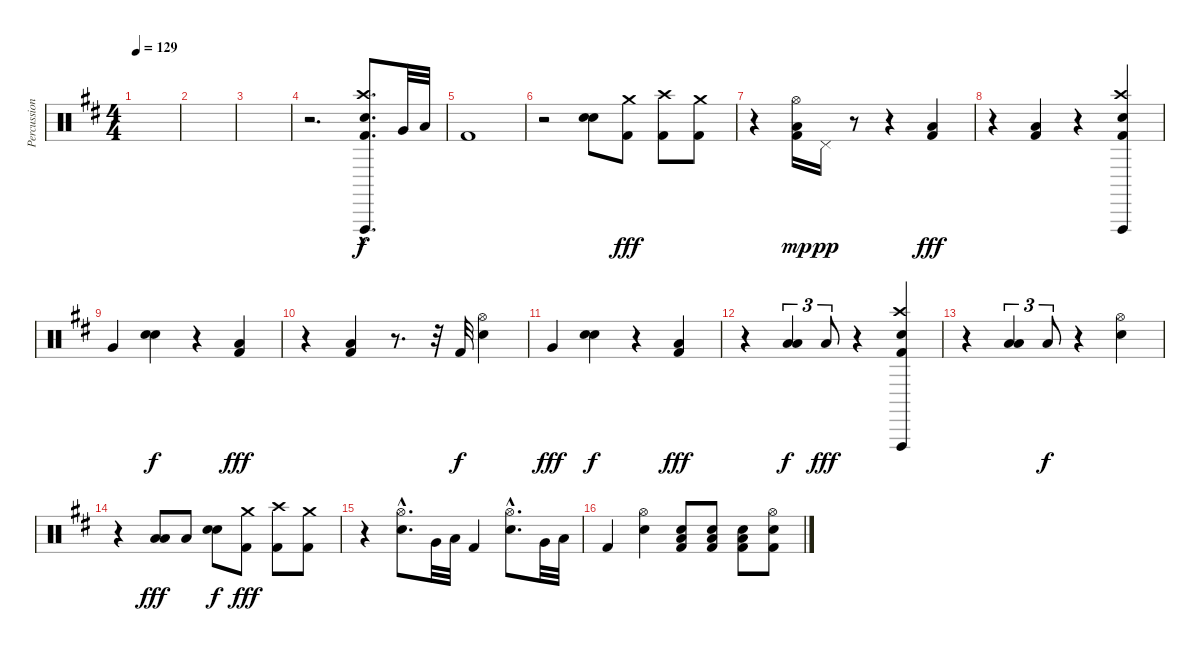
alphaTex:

\track ("Percussion" "Percussion") {instrument percussion}
\staff {score}
\articulation defaults
\ts (4 4)
\tempo 129
\clef neutral
\ks d
|
|
|
r.2{d} ("Crash high (hit)"{hac} "Kick (hit) 2"{hac} "Electric Snare (hit)"{hac} "Vibraslap (hit)"{hac}).8{d} "Very Low Tom (hit)".32 "Low Floor Tom (hit)".32 |
"Kick (hit) 2".1 |
r.2 ("Electric Snare (hit)" "Electric Snare (hit)").8{bd 240 dy f} ("Crash medium (hit)" "Kick (hit) 2").8{dy fff} ("Crash high (hit)" "Kick (hit) 2").8 ("Crash medium (hit)" "Kick (hit) 2").8 |
r.4 ("Hi-Hat (open)" "Kick (hit) 2" "Low Floor Tom (hit)").16{dy mp} "Pedal Hi-Hat (hit)".16{dy pp} r.8 r.4 ("Kick (hit) 2" "Low Floor Tom (hit)").4{dy fff} |
r.4 ("Kick (hit) 2" "Low Floor Tom (hit)").4 r.4 ("Crash high (hit)" "Kick (hit) 2" "Electric Snare (hit)" "Vibraslap (hit)").4 |
"Very Low Tom (hit)".4 ("Electric Snare (hit)" "Electric Snare (hit)").4{bd 240 dy f} r.4 ("Kick (hit) 2" "Low Floor Tom (hit)").4{dy fff} |
r.4 ("Kick (hit) 2" "Low Floor Tom (hit)").4 r.8{d} r.32 "Kick (hit) 2".32{dy f} ("Hi-Hat (open)" "Electric Snare (hit)").4 |
"Very Low Tom (hit)".4{dy fff} ("Electric Snare (hit)" "Electric Snare (hit)").4{bd 240 dy f} r.4 ("Kick (hit) 2" "Low Floor Tom (hit)").4{dy fff} |
r.4 ("Low Floor Tom (hit)" "Low Floor Tom (hit)").4{tu (3 2) bd 480 dy f} "Low Floor Tom (hit)".8{tu (3 2) dy fff} r.4 ("Crash high (hit)" "Kick (hit) 2" "Electric Snare (hit)" "Vibraslap (hit)").4 |
r.4 ("Low Floor Tom (hit)" "Low Floor Tom (hit)").4{tu (3 2) bd 480} "Low Floor Tom (hit)".8{tu (3 2) dy f} r.4 ("Hi-Hat (open)" "Electric Snare (hit)").4 |
r.4 ("Low Floor Tom (hit)" "Low Floor Tom (hit)").8{bd 480 dy fff} "Low Floor Tom (hit)".8 ("Electric Snare (hit)" "Electric Snare (hit)").8{bd 240 dy f} ("Crash medium (hit)" "Kick (hit) 2").8{dy fff} ("Crash high (hit)" "Kick (hit) 2").8 ("Crash medium (hit)" "Kick (hit) 2").8 |
r.4 ("Hi-Hat (open)"{hac} "Electric Snare (hit)"{hac}).8{d} "Very Low Tom (hit)".32 "Low Floor Tom (hit)".32 "Kick (hit) 2".4 ("Hi-Hat (open)"{hac} "Electric Snare (hit)"{hac}).8{d} "Very Low Tom (hit)".32 "Low Floor Tom (hit)".32 |
"Kick (hit) 2".4 ("Hi-Hat (open)" "Electric Snare (hit)").4 ("Kick (hit) 2" "Electric Snare (hit)" "Low Floor Tom (hit)").8 ("Kick (hit) 2" "Electric Snare (hit)" "Low Floor Tom (hit)").8 ("Kick (hit) 2" "Electric Snare (hit)" "Low Floor Tom (hit)").8 ("Hi-Hat (open)" "Kick (hit) 2" "Electric Snare (hit)").8
